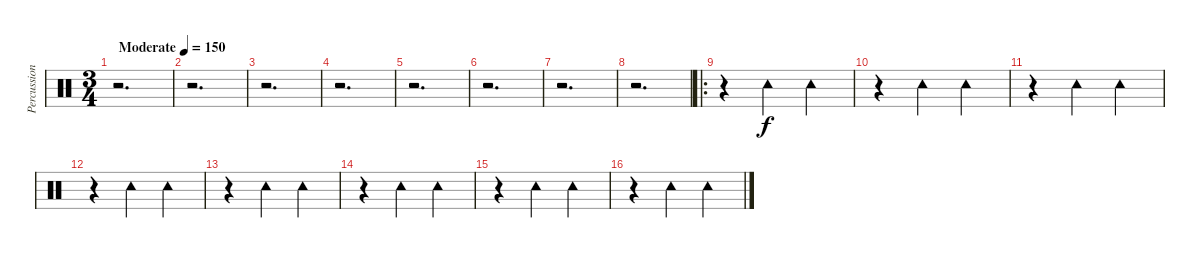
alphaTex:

\track ("Percussions" "Percussion") {instrument percussion bank 1}
\staff {score}
\articulation defaults
\ts (3 4)
\tempo (150 "Moderate")
\clef neutral
\ks c
r.2{d dy f} |
r.2{d} |
r.2{d} |
r.2{d} |
r.2{d} |
r.2{d} |
r.2{d} |
r.2{d} |
\ro
r.4 "Tambourine (hit)".4 "Tambourine (hit)".4 |
r.4 "Tambourine (hit)".4 "Tambourine (hit)".4 |
r.4 "Tambourine (hit)".4 "Tambourine (hit)".4 |
r.4 "Tambourine (hit)".4 "Tambourine (hit)".4 |
r.4 "Tambourine (hit)".4 "Tambourine (hit)".4 |
r.4 "Tambourine (hit)".4 "Tambourine (hit)".4 |
r.4 "Tambourine (hit)".4 "Tambourine (hit)".4 |
r.4 "Tambourine (hit)".4 "Tambourine (hit)".4
